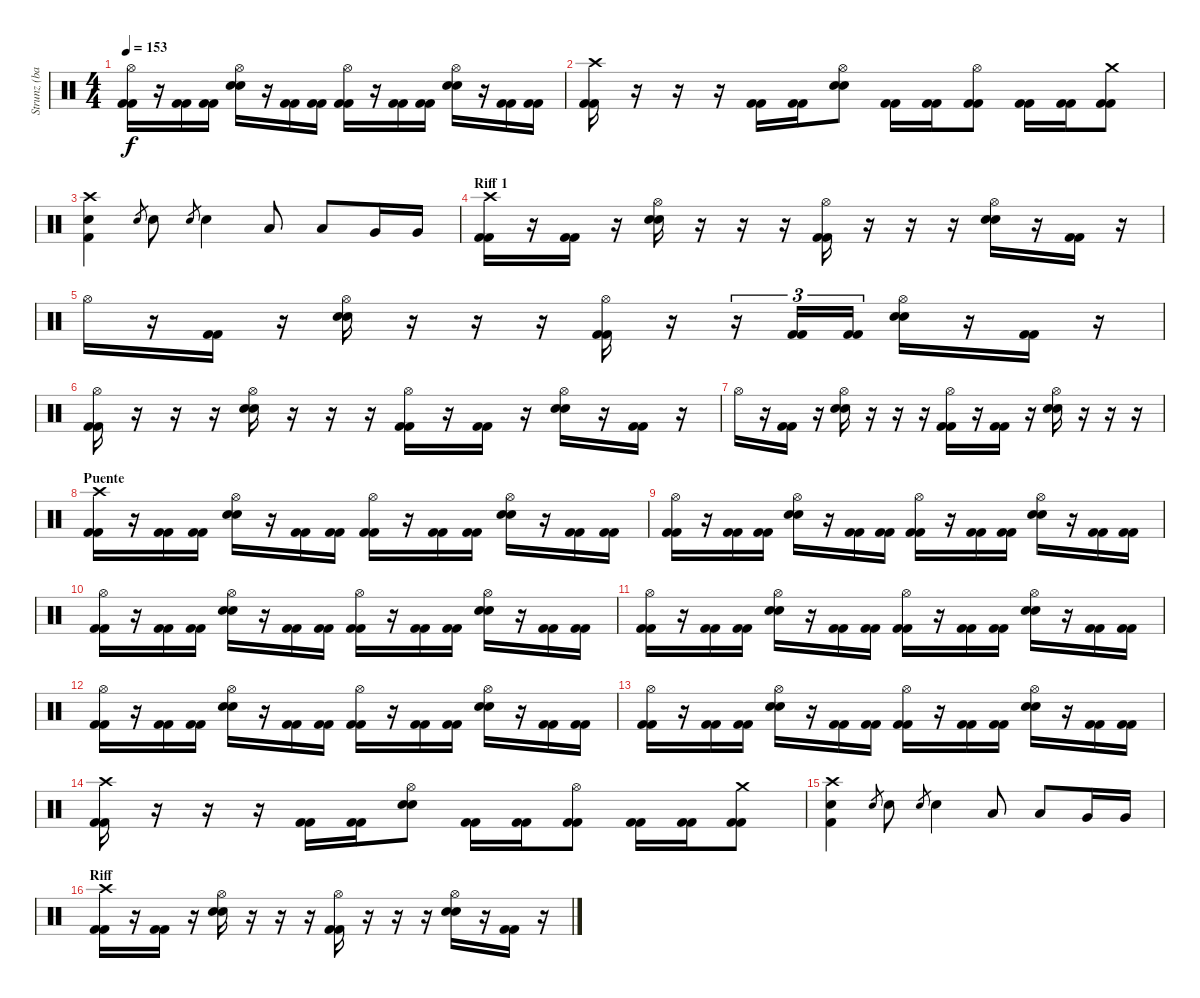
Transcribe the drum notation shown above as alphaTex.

\track ("Strunz (bateria)" "Strunz (ba") {instrument percussion}
\staff {score}
\articulation defaults
\ts (4 4)
\tempo 153
\clef neutral
\ks c
("Hi-Hat (open)" "Kick (hit) 2" "Kick (hit) 2").16{dy f} r.16 ("Kick (hit) 2" "Kick (hit) 2").16 ("Kick (hit) 2" "Kick (hit) 2").16 ("Hi-Hat (open)" "Snare (hit) 2" "Snare (hit) 2").16 r.16 ("Kick (hit) 2" "Kick (hit) 2").16 ("Kick (hit) 2" "Kick (hit) 2").16 ("Hi-Hat (open)" "Kick (hit) 2" "Kick (hit) 2").16 r.16 ("Kick (hit) 2" "Kick (hit) 2").16 ("Kick (hit) 2" "Kick (hit) 2").16 ("Hi-Hat (open)" "Snare (hit) 2" "Snare (hit) 2").16 r.16 ("Kick (hit) 2" "Kick (hit) 2").16 ("Kick (hit) 2" "Kick (hit) 2").16 |
("Crash high (hit)" "Kick (hit) 2" "Kick (hit) 2").16 r.16 r.16 r.16 ("Kick (hit) 2" "Kick (hit) 2").16 ("Kick (hit) 2" "Kick (hit) 2").16 ("Hi-Hat (open)" "Snare (hit) 2" "Snare (hit) 2").8 ("Kick (hit) 2" "Kick (hit) 2").16 ("Kick (hit) 2" "Kick (hit) 2").16 ("Hi-Hat (open)" "Kick (hit) 2" "Kick (hit) 2").8 ("Kick (hit) 2" "Kick (hit) 2").16 ("Kick (hit) 2" "Kick (hit) 2").16 ("Crash medium (hit)" "Kick (hit) 2" "Kick (hit) 2").8 |
("Crash high (hit)" "Snare (hit) 2" "Kick (hit) 2").4 "Snare (hit) 2".8{gr} "Snare (hit) 2".8 "Snare (hit) 2".8{gr} "Snare (hit) 2".4 "Low Tom (hit)".8 "Low Tom (hit)".8 "Very Low Tom (hit)".16 "Very Low Tom (hit)".16 |
\section ("" "Riff 1")
("Crash high (hit)" "Kick (hit) 2" "Kick (hit) 2").16 r.16 ("Kick (hit) 2" "Kick (hit) 2").16 r.16 ("Hi-Hat (open)" "Snare (hit) 2" "Snare (hit) 2").16 r.16 r.16 r.16 ("Hi-Hat (open)" "Kick (hit) 2" "Kick (hit) 2").16 r.16 r.16 r.16 ("Hi-Hat (open)" "Snare (hit) 2" "Snare (hit) 2").16 r.16 ("Kick (hit) 2" "Kick (hit) 2").16 r.16 |
"Hi-Hat (open)".16 r.16 ("Kick (hit) 2" "Kick (hit) 2").16 r.16 ("Hi-Hat (open)" "Snare (hit) 2" "Snare (hit) 2").16 r.16 r.16 r.16 ("Hi-Hat (open)" "Kick (hit) 2" "Kick (hit) 2").16 r.16 r.16{tu (3 2)} ("Kick (hit) 2" "Kick (hit) 2").16{tu (3 2)} ("Kick (hit) 2" "Kick (hit) 2").16{tu (3 2)} ("Hi-Hat (open)" "Snare (hit) 2" "Snare (hit) 2").16 r.16 ("Kick (hit) 2" "Kick (hit) 2").16 r.16 |
("Hi-Hat (open)" "Kick (hit) 2" "Kick (hit) 2").16 r.16 r.16 r.16 ("Hi-Hat (open)" "Snare (hit) 2" "Snare (hit) 2").16 r.16 r.16 r.16 ("Hi-Hat (open)" "Kick (hit) 2" "Kick (hit) 2").16 r.16 ("Kick (hit) 2" "Kick (hit) 2").16 r.16 ("Hi-Hat (open)" "Snare (hit) 2" "Snare (hit) 2").16 r.16 ("Kick (hit) 2" "Kick (hit) 2").16 r.16 |
"Hi-Hat (open)".16 r.16 ("Kick (hit) 2" "Kick (hit) 2").16 r.16 ("Hi-Hat (open)" "Snare (hit) 2" "Snare (hit) 2").16 r.16 r.16 r.16 ("Hi-Hat (open)" "Kick (hit) 2" "Kick (hit) 2").16 r.16 ("Kick (hit) 2" "Kick (hit) 2").16 r.16 ("Hi-Hat (open)" "Snare (hit) 2" "Snare (hit) 2").16 r.16 r.16 r.16 |
\section ("" "Puente")
("Crash high (hit)" "Kick (hit) 2" "Kick (hit) 2").16 r.16 ("Kick (hit) 2" "Kick (hit) 2").16 ("Kick (hit) 2" "Kick (hit) 2").16 ("Hi-Hat (open)" "Snare (hit) 2" "Snare (hit) 2").16 r.16 ("Kick (hit) 2" "Kick (hit) 2").16 ("Kick (hit) 2" "Kick (hit) 2").16 ("Hi-Hat (open)" "Kick (hit) 2" "Kick (hit) 2").16 r.16 ("Kick (hit) 2" "Kick (hit) 2").16 ("Kick (hit) 2" "Kick (hit) 2").16 ("Hi-Hat (open)" "Snare (hit) 2" "Snare (hit) 2").16 r.16 ("Kick (hit) 2" "Kick (hit) 2").16 ("Kick (hit) 2" "Kick (hit) 2").16 |
("Hi-Hat (open)" "Kick (hit) 2" "Kick (hit) 2").16 r.16 ("Kick (hit) 2" "Kick (hit) 2").16 ("Kick (hit) 2" "Kick (hit) 2").16 ("Hi-Hat (open)" "Snare (hit) 2" "Snare (hit) 2").16 r.16 ("Kick (hit) 2" "Kick (hit) 2").16 ("Kick (hit) 2" "Kick (hit) 2").16 ("Hi-Hat (open)" "Kick (hit) 2" "Kick (hit) 2").16 r.16 ("Kick (hit) 2" "Kick (hit) 2").16 ("Kick (hit) 2" "Kick (hit) 2").16 ("Hi-Hat (open)" "Snare (hit) 2" "Snare (hit) 2").16 r.16 ("Kick (hit) 2" "Kick (hit) 2").16 ("Kick (hit) 2" "Kick (hit) 2").16 |
("Hi-Hat (open)" "Kick (hit) 2" "Kick (hit) 2").16 r.16 ("Kick (hit) 2" "Kick (hit) 2").16 ("Kick (hit) 2" "Kick (hit) 2").16 ("Hi-Hat (open)" "Snare (hit) 2" "Snare (hit) 2").16 r.16 ("Kick (hit) 2" "Kick (hit) 2").16 ("Kick (hit) 2" "Kick (hit) 2").16 ("Hi-Hat (open)" "Kick (hit) 2" "Kick (hit) 2").16 r.16 ("Kick (hit) 2" "Kick (hit) 2").16 ("Kick (hit) 2" "Kick (hit) 2").16 ("Hi-Hat (open)" "Snare (hit) 2" "Snare (hit) 2").16 r.16 ("Kick (hit) 2" "Kick (hit) 2").16 ("Kick (hit) 2" "Kick (hit) 2").16 |
("Hi-Hat (open)" "Kick (hit) 2" "Kick (hit) 2").16 r.16 ("Kick (hit) 2" "Kick (hit) 2").16 ("Kick (hit) 2" "Kick (hit) 2").16 ("Hi-Hat (open)" "Snare (hit) 2" "Snare (hit) 2").16 r.16 ("Kick (hit) 2" "Kick (hit) 2").16 ("Kick (hit) 2" "Kick (hit) 2").16 ("Hi-Hat (open)" "Kick (hit) 2" "Kick (hit) 2").16 r.16 ("Kick (hit) 2" "Kick (hit) 2").16 ("Kick (hit) 2" "Kick (hit) 2").16 ("Hi-Hat (open)" "Snare (hit) 2" "Snare (hit) 2").16 r.16 ("Kick (hit) 2" "Kick (hit) 2").16 ("Kick (hit) 2" "Kick (hit) 2").16 |
("Hi-Hat (open)" "Kick (hit) 2" "Kick (hit) 2").16 r.16 ("Kick (hit) 2" "Kick (hit) 2").16 ("Kick (hit) 2" "Kick (hit) 2").16 ("Hi-Hat (open)" "Snare (hit) 2" "Snare (hit) 2").16 r.16 ("Kick (hit) 2" "Kick (hit) 2").16 ("Kick (hit) 2" "Kick (hit) 2").16 ("Hi-Hat (open)" "Kick (hit) 2" "Kick (hit) 2").16 r.16 ("Kick (hit) 2" "Kick (hit) 2").16 ("Kick (hit) 2" "Kick (hit) 2").16 ("Hi-Hat (open)" "Snare (hit) 2" "Snare (hit) 2").16 r.16 ("Kick (hit) 2" "Kick (hit) 2").16 ("Kick (hit) 2" "Kick (hit) 2").16 |
("Hi-Hat (open)" "Kick (hit) 2" "Kick (hit) 2").16 r.16 ("Kick (hit) 2" "Kick (hit) 2").16 ("Kick (hit) 2" "Kick (hit) 2").16 ("Hi-Hat (open)" "Snare (hit) 2" "Snare (hit) 2").16 r.16 ("Kick (hit) 2" "Kick (hit) 2").16 ("Kick (hit) 2" "Kick (hit) 2").16 ("Hi-Hat (open)" "Kick (hit) 2" "Kick (hit) 2").16 r.16 ("Kick (hit) 2" "Kick (hit) 2").16 ("Kick (hit) 2" "Kick (hit) 2").16 ("Hi-Hat (open)" "Snare (hit) 2" "Snare (hit) 2").16 r.16 ("Kick (hit) 2" "Kick (hit) 2").16 ("Kick (hit) 2" "Kick (hit) 2").16 |
("Crash high (hit)" "Kick (hit) 2" "Kick (hit) 2").16 r.16 r.16 r.16 ("Kick (hit) 2" "Kick (hit) 2").16 ("Kick (hit) 2" "Kick (hit) 2").16 ("Hi-Hat (open)" "Snare (hit) 2" "Snare (hit) 2").8 ("Kick (hit) 2" "Kick (hit) 2").16 ("Kick (hit) 2" "Kick (hit) 2").16 ("Hi-Hat (open)" "Kick (hit) 2" "Kick (hit) 2").8 ("Kick (hit) 2" "Kick (hit) 2").16 ("Kick (hit) 2" "Kick (hit) 2").16 ("Crash medium (hit)" "Kick (hit) 2" "Kick (hit) 2").8 |
("Crash high (hit)" "Snare (hit) 2" "Kick (hit) 2").4 "Snare (hit) 2".8{gr} "Snare (hit) 2".8 "Snare (hit) 2".8{gr} "Snare (hit) 2".4 "Low Tom (hit)".8 "Low Tom (hit)".8 "Very Low Tom (hit)".16 "Very Low Tom (hit)".16 |
\section ("" "Riff")
("Crash high (hit)" "Kick (hit) 2" "Kick (hit) 2").16 r.16 ("Kick (hit) 2" "Kick (hit) 2").16 r.16 ("Hi-Hat (open)" "Snare (hit) 2" "Snare (hit) 2").16 r.16 r.16 r.16 ("Hi-Hat (open)" "Kick (hit) 2" "Kick (hit) 2").16 r.16 r.16 r.16 ("Hi-Hat (open)" "Snare (hit) 2" "Snare (hit) 2").16 r.16 ("Kick (hit) 2" "Kick (hit) 2").16 r.16
